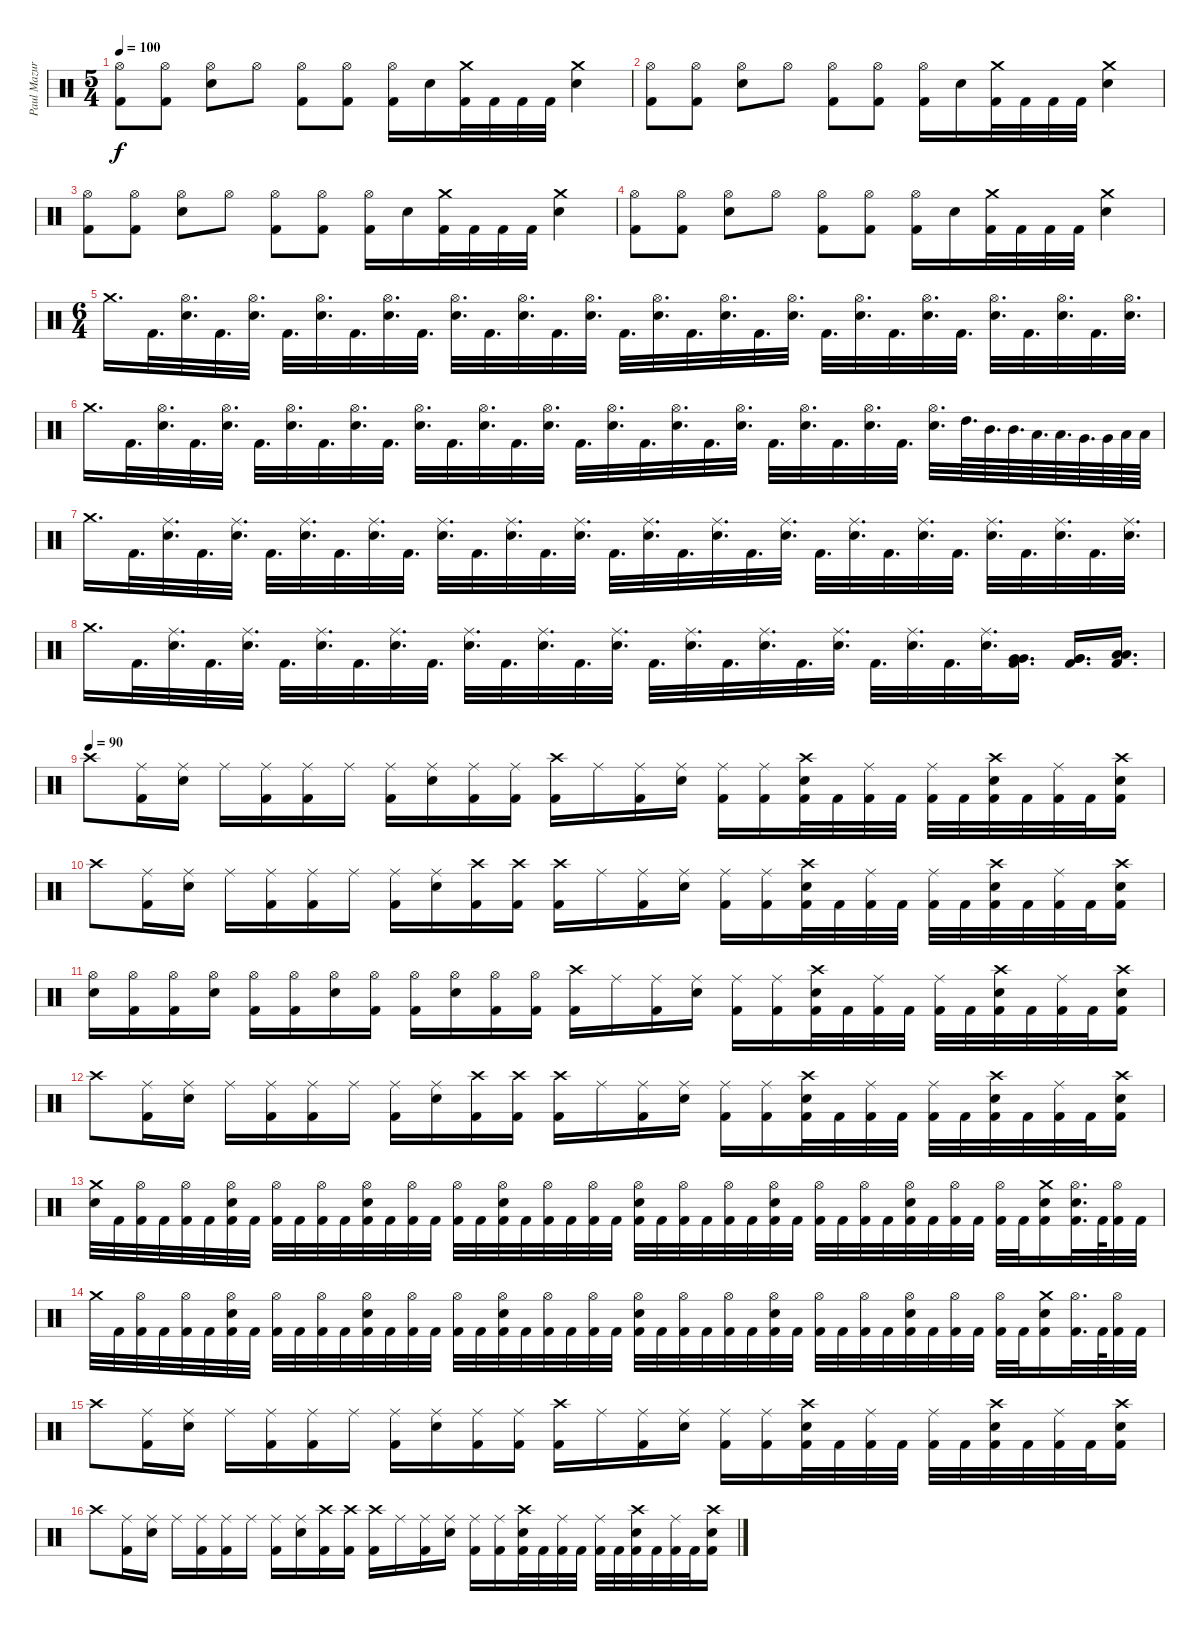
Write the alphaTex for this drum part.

\track ("Paul Mazurkiewicz" "Paul Mazur") {instrument percussion}
\staff {score}
\articulation defaults
\ts (5 4)
\tempo 100
\clef neutral
\ks c
("Hi-Hat (open)" "Kick (hit) 2").8{dy f} ("Hi-Hat (open)" "Kick (hit) 2").8 ("Hi-Hat (open)" "Electric Snare (hit)").8 "Hi-Hat (open)".8 ("Hi-Hat (open)" "Kick (hit) 2").8 ("Hi-Hat (open)" "Kick (hit) 2").8 ("Hi-Hat (open)" "Kick (hit) 2").16 "Electric Snare (hit)".16 ("Crash medium (hit)" "Kick (hit) 2").32 "Kick (hit) 2".32 "Kick (hit) 2".32 "Kick (hit) 2".32 ("Crash medium (hit)" "Electric Snare (hit)").4 |
("Hi-Hat (open)" "Kick (hit) 2").8 ("Hi-Hat (open)" "Kick (hit) 2").8 ("Hi-Hat (open)" "Electric Snare (hit)").8 "Hi-Hat (open)".8 ("Hi-Hat (open)" "Kick (hit) 2").8 ("Hi-Hat (open)" "Kick (hit) 2").8 ("Hi-Hat (open)" "Kick (hit) 2").16 "Electric Snare (hit)".16 ("Crash medium (hit)" "Kick (hit) 2").32 "Kick (hit) 2".32 "Kick (hit) 2".32 "Kick (hit) 2".32 ("Crash medium (hit)" "Electric Snare (hit)").4 |
("Hi-Hat (open)" "Kick (hit) 2").8 ("Hi-Hat (open)" "Kick (hit) 2").8 ("Hi-Hat (open)" "Electric Snare (hit)").8 "Hi-Hat (open)".8 ("Hi-Hat (open)" "Kick (hit) 2").8 ("Hi-Hat (open)" "Kick (hit) 2").8 ("Hi-Hat (open)" "Kick (hit) 2").16 "Electric Snare (hit)".16 ("Crash medium (hit)" "Kick (hit) 2").32 "Kick (hit) 2".32 "Kick (hit) 2".32 "Kick (hit) 2".32 ("Crash medium (hit)" "Electric Snare (hit)").4 |
("Hi-Hat (open)" "Kick (hit) 2").8 ("Hi-Hat (open)" "Kick (hit) 2").8 ("Hi-Hat (open)" "Electric Snare (hit)").8 "Hi-Hat (open)".8 ("Hi-Hat (open)" "Kick (hit) 2").8 ("Hi-Hat (open)" "Kick (hit) 2").8 ("Hi-Hat (open)" "Kick (hit) 2").16 "Electric Snare (hit)".16 ("Crash medium (hit)" "Kick (hit) 2").32 "Kick (hit) 2".32 "Kick (hit) 2".32 "Kick (hit) 2".32 ("Crash medium (hit)" "Electric Snare (hit)").4 |
\ts (6 4)
"Crash medium (hit)".16{d} "Kick (hit) 2".32{d} ("Hi-Hat (open)" "Electric Snare (hit)").32{d} "Kick (hit) 2".32{d} ("Hi-Hat (open)" "Electric Snare (hit)").32{d} "Kick (hit) 2".32{d} ("Hi-Hat (open)" "Electric Snare (hit)").32{d} "Kick (hit) 2".32{d} ("Hi-Hat (open)" "Electric Snare (hit)").32{d} "Kick (hit) 2".32{d} ("Hi-Hat (open)" "Electric Snare (hit)").32{d} "Kick (hit) 2".32{d} ("Hi-Hat (open)" "Electric Snare (hit)").32{d} "Kick (hit) 2".32{d} ("Hi-Hat (open)" "Electric Snare (hit)").32{d} "Kick (hit) 2".32{d} ("Hi-Hat (open)" "Electric Snare (hit)").32{d} "Kick (hit) 2".32{d} ("Hi-Hat (open)" "Electric Snare (hit)").32{d} "Kick (hit) 2".32{d} ("Hi-Hat (open)" "Electric Snare (hit)").32{d} "Kick (hit) 2".32{d} ("Hi-Hat (open)" "Electric Snare (hit)").32{d} "Kick (hit) 2".32{d} ("Hi-Hat (open)" "Electric Snare (hit)").32{d} "Kick (hit) 2".32{d} ("Hi-Hat (open)" "Electric Snare (hit)").32{d} "Kick (hit) 2".32{d} ("Hi-Hat (open)" "Electric Snare (hit)").32{d} "Kick (hit) 2".32{d} ("Hi-Hat (open)" "Electric Snare (hit)").32{d} |
"Crash medium (hit)".16{d} "Kick (hit) 2".32{d} ("Hi-Hat (open)" "Electric Snare (hit)").32{d} "Kick (hit) 2".32{d} ("Hi-Hat (open)" "Electric Snare (hit)").32{d} "Kick (hit) 2".32{d} ("Hi-Hat (open)" "Electric Snare (hit)").32{d} "Kick (hit) 2".32{d} ("Hi-Hat (open)" "Electric Snare (hit)").32{d} "Kick (hit) 2".32{d} ("Hi-Hat (open)" "Electric Snare (hit)").32{d} "Kick (hit) 2".32{d} ("Hi-Hat (open)" "Electric Snare (hit)").32{d} "Kick (hit) 2".32{d} ("Hi-Hat (open)" "Electric Snare (hit)").32{d} "Kick (hit) 2".32{d} ("Hi-Hat (open)" "Electric Snare (hit)").32{d} "Kick (hit) 2".32{d} ("Hi-Hat (open)" "Electric Snare (hit)").32{d} "Kick (hit) 2".32{d} ("Hi-Hat (open)" "Electric Snare (hit)").32{d} "Kick (hit) 2".32{d} ("Hi-Hat (open)" "Electric Snare (hit)").32{d} "Kick (hit) 2".32{d} ("Hi-Hat (open)" "Electric Snare (hit)").32{d} "Kick (hit) 2".32{d} ("Hi-Hat (open)" "Electric Snare (hit)").32{d} "High Tom (hit)".64{d} "Mid Tom (hit)".64{d} "Mid Tom (hit)".64{d} "Low Tom (hit)".64{d} "Low Tom (hit)".64{d} "Very Low Tom (hit)".64{d} "Very Low Tom (hit)".64 "Low Floor Tom (hit)".64 "Low Floor Tom (hit)".64 |
"Crash medium (hit)".16{d} "Kick (hit) 2".32{d} ("Ride (middle)" "Electric Snare (hit)").32{d} "Kick (hit) 2".32{d} ("Ride (middle)" "Electric Snare (hit)").32{d} "Kick (hit) 2".32{d} ("Ride (middle)" "Electric Snare (hit)").32{d} "Kick (hit) 2".32{d} ("Ride (middle)" "Electric Snare (hit)").32{d} "Kick (hit) 2".32{d} ("Ride (middle)" "Electric Snare (hit)").32{d} "Kick (hit) 2".32{d} ("Ride (middle)" "Electric Snare (hit)").32{d} "Kick (hit) 2".32{d} ("Ride (middle)" "Electric Snare (hit)").32{d} "Kick (hit) 2".32{d} ("Ride (middle)" "Electric Snare (hit)").32{d} "Kick (hit) 2".32{d} ("Ride (middle)" "Electric Snare (hit)").32{d} "Kick (hit) 2".32{d} ("Ride (middle)" "Electric Snare (hit)").32{d} "Kick (hit) 2".32{d} ("Ride (middle)" "Electric Snare (hit)").32{d} "Kick (hit) 2".32{d} ("Ride (middle)" "Electric Snare (hit)").32{d} "Kick (hit) 2".32{d} ("Ride (middle)" "Electric Snare (hit)").32{d} "Kick (hit) 2".32{d} ("Ride (middle)" "Electric Snare (hit)").32{d} "Kick (hit) 2".32{d} ("Ride (middle)" "Electric Snare (hit)").32{d} |
"Crash medium (hit)".16{d} "Kick (hit) 2".32{d} ("Ride (middle)" "Electric Snare (hit)").32{d} "Kick (hit) 2".32{d} ("Ride (middle)" "Electric Snare (hit)").32{d} "Kick (hit) 2".32{d} ("Ride (middle)" "Electric Snare (hit)").32{d} "Kick (hit) 2".32{d} ("Ride (middle)" "Electric Snare (hit)").32{d} "Kick (hit) 2".32{d} ("Ride (middle)" "Electric Snare (hit)").32{d} "Kick (hit) 2".32{d} ("Ride (middle)" "Electric Snare (hit)").32{d} "Kick (hit) 2".32{d} ("Ride (middle)" "Electric Snare (hit)").32{d} "Kick (hit) 2".32{d} ("Ride (middle)" "Electric Snare (hit)").32{d} "Kick (hit) 2".32{d} ("Ride (middle)" "Electric Snare (hit)").32{d} "Kick (hit) 2".32{d} ("Ride (middle)" "Electric Snare (hit)").32{d} "Kick (hit) 2".32{d} ("Ride (middle)" "Electric Snare (hit)").32{d} "Kick (hit) 2".32{d} ("Ride (middle)" "Electric Snare (hit)").32{d} ("Very Low Tom (hit)" "Very Low Tom (hit)" "Kick (hit) 2").16{d} ("Very Low Tom (hit)" "Very Low Tom (hit)" "Kick (hit) 2").16{d} ("Low Floor Tom (hit)" "Low Floor Tom (hit)" "Kick (hit) 2").16{d} |
\tempo (90)
"Crash high (hit)".8 ("Ride (middle)" "Kick (hit) 2").16 ("Ride (middle)" "Electric Snare (hit)").16 "Ride (middle)".16 ("Ride (middle)" "Kick (hit) 2").16 ("Ride (middle)" "Kick (hit) 2").16 "Ride (middle)".16 ("Ride (middle)" "Kick (hit) 2").16 ("Ride (middle)" "Electric Snare (hit)").16 ("Ride (middle)" "Kick (hit) 2").16 ("Ride (middle)" "Kick (hit) 2").16 ("Crash high (hit)" "Kick (hit) 2").16 "Ride (middle)".16 ("Ride (middle)" "Kick (hit) 2").16 ("Ride (middle)" "Electric Snare (hit)").16 ("Ride (middle)" "Kick (hit) 2").16 ("Ride (middle)" "Kick (hit) 2").16 ("Crash high (hit)" "Electric Snare (hit)" "Kick (hit) 2").32 "Kick (hit) 2".32 ("Ride (middle)" "Kick (hit) 2").32 "Kick (hit) 2".32 ("Ride (middle)" "Kick (hit) 2").32 "Kick (hit) 2".32 ("Crash high (hit)" "Electric Snare (hit)" "Kick (hit) 2").32 "Kick (hit) 2".32 ("Ride (middle)" "Kick (hit) 2").32 "Kick (hit) 2".32 ("Crash high (hit)" "Electric Snare (hit)" "Kick (hit) 2").16 |
"Crash high (hit)".8 ("Ride (middle)" "Kick (hit) 2").16 ("Ride (middle)" "Electric Snare (hit)").16 "Ride (middle)".16 ("Ride (middle)" "Kick (hit) 2").16 ("Ride (middle)" "Kick (hit) 2").16 "Ride (middle)".16 ("Ride (middle)" "Kick (hit) 2").16 ("Ride (middle)" "Electric Snare (hit)").16 ("Crash high (hit)" "Kick (hit) 2").16 ("Crash high (hit)" "Kick (hit) 2").16 ("Crash high (hit)" "Kick (hit) 2").16 "Ride (middle)".16 ("Ride (middle)" "Kick (hit) 2").16 ("Ride (middle)" "Electric Snare (hit)").16 ("Ride (middle)" "Kick (hit) 2").16 ("Ride (middle)" "Kick (hit) 2").16 ("Crash high (hit)" "Electric Snare (hit)" "Kick (hit) 2").32 "Kick (hit) 2".32 ("Ride (middle)" "Kick (hit) 2").32 "Kick (hit) 2".32 ("Ride (middle)" "Kick (hit) 2").32 "Kick (hit) 2".32 ("Crash high (hit)" "Electric Snare (hit)" "Kick (hit) 2").32 "Kick (hit) 2".32 ("Ride (middle)" "Kick (hit) 2").32 "Kick (hit) 2".32 ("Crash high (hit)" "Electric Snare (hit)" "Kick (hit) 2").16 |
("Hi-Hat (open)" "Electric Snare (hit)").16 ("Hi-Hat (open)" "Kick (hit) 2").16 ("Hi-Hat (open)" "Kick (hit) 2").16 ("Hi-Hat (open)" "Electric Snare (hit)").16 ("Hi-Hat (open)" "Kick (hit) 2").16 ("Hi-Hat (open)" "Kick (hit) 2").16 ("Hi-Hat (open)" "Electric Snare (hit)").16 ("Hi-Hat (open)" "Kick (hit) 2").16 ("Hi-Hat (open)" "Kick (hit) 2").16 ("Hi-Hat (open)" "Electric Snare (hit)").16 ("Hi-Hat (open)" "Kick (hit) 2").16 ("Hi-Hat (open)" "Kick (hit) 2").16 ("Crash high (hit)" "Kick (hit) 2").16 "Ride (middle)".16 ("Ride (middle)" "Kick (hit) 2").16 ("Ride (middle)" "Electric Snare (hit)").16 ("Ride (middle)" "Kick (hit) 2").16 ("Ride (middle)" "Kick (hit) 2").16 ("Crash high (hit)" "Electric Snare (hit)" "Kick (hit) 2").32 "Kick (hit) 2".32 ("Ride (middle)" "Kick (hit) 2").32 "Kick (hit) 2".32 ("Ride (middle)" "Kick (hit) 2").32 "Kick (hit) 2".32 ("Crash high (hit)" "Electric Snare (hit)" "Kick (hit) 2").32 "Kick (hit) 2".32 ("Ride (middle)" "Kick (hit) 2").32 "Kick (hit) 2".32 ("Crash high (hit)" "Electric Snare (hit)" "Kick (hit) 2").16 |
"Crash high (hit)".8 ("Ride (middle)" "Kick (hit) 2").16 ("Ride (middle)" "Electric Snare (hit)").16 "Ride (middle)".16 ("Ride (middle)" "Kick (hit) 2").16 ("Ride (middle)" "Kick (hit) 2").16 "Ride (middle)".16 ("Ride (middle)" "Kick (hit) 2").16 ("Ride (middle)" "Electric Snare (hit)").16 ("Crash high (hit)" "Kick (hit) 2").16 ("Crash high (hit)" "Kick (hit) 2").16 ("Crash high (hit)" "Kick (hit) 2").16 "Ride (middle)".16 ("Ride (middle)" "Kick (hit) 2").16 ("Ride (middle)" "Electric Snare (hit)").16 ("Ride (middle)" "Kick (hit) 2").16 ("Ride (middle)" "Kick (hit) 2").16 ("Crash high (hit)" "Electric Snare (hit)" "Kick (hit) 2").32 "Kick (hit) 2".32 ("Ride (middle)" "Kick (hit) 2").32 "Kick (hit) 2".32 ("Ride (middle)" "Kick (hit) 2").32 "Kick (hit) 2".32 ("Crash high (hit)" "Electric Snare (hit)" "Kick (hit) 2").32 "Kick (hit) 2".32 ("Ride (middle)" "Kick (hit) 2").32 "Kick (hit) 2".32 ("Crash high (hit)" "Electric Snare (hit)" "Kick (hit) 2").16 |
("Crash medium (hit)" "Electric Snare (hit)").32 "Kick (hit) 2".32 ("Hi-Hat (open)" "Kick (hit) 2").32 "Kick (hit) 2".32 ("Hi-Hat (open)" "Kick (hit) 2").32 "Kick (hit) 2".32 ("Hi-Hat (open)" "Electric Snare (hit)" "Kick (hit) 2").32 "Kick (hit) 2".32 ("Hi-Hat (open)" "Kick (hit) 2").32 "Kick (hit) 2".32 ("Hi-Hat (open)" "Kick (hit) 2").32 "Kick (hit) 2".32 ("Hi-Hat (open)" "Electric Snare (hit)" "Kick (hit) 2").32 "Kick (hit) 2".32 ("Hi-Hat (open)" "Kick (hit) 2").32 "Kick (hit) 2".32 ("Hi-Hat (open)" "Kick (hit) 2").32 "Kick (hit) 2".32 ("Hi-Hat (open)" "Electric Snare (hit)" "Kick (hit) 2").32 "Kick (hit) 2".32 ("Hi-Hat (open)" "Kick (hit) 2").32 "Kick (hit) 2".32 ("Hi-Hat (open)" "Kick (hit) 2").32 "Kick (hit) 2".32 ("Hi-Hat (open)" "Electric Snare (hit)" "Kick (hit) 2").32 "Kick (hit) 2".32 ("Hi-Hat (open)" "Kick (hit) 2").32 "Kick (hit) 2".32 ("Hi-Hat (open)" "Kick (hit) 2").32 "Kick (hit) 2".32 ("Hi-Hat (open)" "Electric Snare (hit)" "Kick (hit) 2").32 "Kick (hit) 2".32 ("Hi-Hat (open)" "Kick (hit) 2").32 "Kick (hit) 2".32 ("Hi-Hat (open)" "Kick (hit) 2").32 "Kick (hit) 2".32 ("Hi-Hat (open)" "Electric Snare (hit)" "Kick (hit) 2").32 "Kick (hit) 2".32 ("Hi-Hat (open)" "Kick (hit) 2").32 "Kick (hit) 2".32 ("Hi-Hat (open)" "Kick (hit) 2").32 "Kick (hit) 2".32 ("Crash medium (hit)" "Electric Snare (hit)" "Kick (hit) 2").16 ("Hi-Hat (open)" "Electric Snare (hit)" "Kick (hit) 2").32{d} "Kick (hit) 2".64 ("Hi-Hat (open)" "Kick (hit) 2").32 "Kick (hit) 2".32 |
"Crash medium (hit)".32 "Kick (hit) 2".32 ("Hi-Hat (open)" "Kick (hit) 2").32 "Kick (hit) 2".32 ("Hi-Hat (open)" "Kick (hit) 2").32 "Kick (hit) 2".32 ("Hi-Hat (open)" "Electric Snare (hit)" "Kick (hit) 2").32 "Kick (hit) 2".32 ("Hi-Hat (open)" "Kick (hit) 2").32 "Kick (hit) 2".32 ("Hi-Hat (open)" "Kick (hit) 2").32 "Kick (hit) 2".32 ("Hi-Hat (open)" "Electric Snare (hit)" "Kick (hit) 2").32 "Kick (hit) 2".32 ("Hi-Hat (open)" "Kick (hit) 2").32 "Kick (hit) 2".32 ("Hi-Hat (open)" "Kick (hit) 2").32 "Kick (hit) 2".32 ("Hi-Hat (open)" "Electric Snare (hit)" "Kick (hit) 2").32 "Kick (hit) 2".32 ("Hi-Hat (open)" "Kick (hit) 2").32 "Kick (hit) 2".32 ("Hi-Hat (open)" "Kick (hit) 2").32 "Kick (hit) 2".32 ("Hi-Hat (open)" "Electric Snare (hit)" "Kick (hit) 2").32 "Kick (hit) 2".32 ("Hi-Hat (open)" "Kick (hit) 2").32 "Kick (hit) 2".32 ("Hi-Hat (open)" "Kick (hit) 2").32 "Kick (hit) 2".32 ("Hi-Hat (open)" "Electric Snare (hit)" "Kick (hit) 2").32 "Kick (hit) 2".32 ("Hi-Hat (open)" "Kick (hit) 2").32 "Kick (hit) 2".32 ("Hi-Hat (open)" "Kick (hit) 2").32 "Kick (hit) 2".32 ("Hi-Hat (open)" "Electric Snare (hit)" "Kick (hit) 2").32 "Kick (hit) 2".32 ("Hi-Hat (open)" "Kick (hit) 2").32 "Kick (hit) 2".32 ("Hi-Hat (open)" "Kick (hit) 2").32 "Kick (hit) 2".32 ("Crash medium (hit)" "Electric Snare (hit)" "Kick (hit) 2").16 ("Hi-Hat (open)" "Kick (hit) 2").32{d} "Kick (hit) 2".64 ("Hi-Hat (open)" "Kick (hit) 2").32 "Kick (hit) 2".32 |
"Crash high (hit)".8 ("Ride (middle)" "Kick (hit) 2").16 ("Ride (middle)" "Electric Snare (hit)").16 "Ride (middle)".16 ("Ride (middle)" "Kick (hit) 2").16 ("Ride (middle)" "Kick (hit) 2").16 "Ride (middle)".16 ("Ride (middle)" "Kick (hit) 2").16 ("Ride (middle)" "Electric Snare (hit)").16 ("Ride (middle)" "Kick (hit) 2").16 ("Ride (middle)" "Kick (hit) 2").16 ("Crash high (hit)" "Kick (hit) 2").16 "Ride (middle)".16 ("Ride (middle)" "Kick (hit) 2").16 ("Ride (middle)" "Electric Snare (hit)").16 ("Ride (middle)" "Kick (hit) 2").16 ("Ride (middle)" "Kick (hit) 2").16 ("Crash high (hit)" "Electric Snare (hit)" "Kick (hit) 2").32 "Kick (hit) 2".32 ("Ride (middle)" "Kick (hit) 2").32 "Kick (hit) 2".32 ("Ride (middle)" "Kick (hit) 2").32 "Kick (hit) 2".32 ("Crash high (hit)" "Electric Snare (hit)" "Kick (hit) 2").32 "Kick (hit) 2".32 ("Ride (middle)" "Kick (hit) 2").32 "Kick (hit) 2".32 ("Crash high (hit)" "Electric Snare (hit)" "Kick (hit) 2").16 |
"Crash high (hit)".8 ("Ride (middle)" "Kick (hit) 2").16 ("Ride (middle)" "Electric Snare (hit)").16 "Ride (middle)".16 ("Ride (middle)" "Kick (hit) 2").16 ("Ride (middle)" "Kick (hit) 2").16 "Ride (middle)".16 ("Ride (middle)" "Kick (hit) 2").16 ("Ride (middle)" "Electric Snare (hit)").16 ("Crash high (hit)" "Kick (hit) 2").16 ("Crash high (hit)" "Kick (hit) 2").16 ("Crash high (hit)" "Kick (hit) 2").16 "Ride (middle)".16 ("Ride (middle)" "Kick (hit) 2").16 ("Ride (middle)" "Electric Snare (hit)").16 ("Ride (middle)" "Kick (hit) 2").16 ("Ride (middle)" "Kick (hit) 2").16 ("Crash high (hit)" "Electric Snare (hit)" "Kick (hit) 2").32 "Kick (hit) 2".32 ("Ride (middle)" "Kick (hit) 2").32 "Kick (hit) 2".32 ("Ride (middle)" "Kick (hit) 2").32 "Kick (hit) 2".32 ("Crash high (hit)" "Electric Snare (hit)" "Kick (hit) 2").32 "Kick (hit) 2".32 ("Ride (middle)" "Kick (hit) 2").32 "Kick (hit) 2".32 ("Crash high (hit)" "Electric Snare (hit)" "Kick (hit) 2").16
